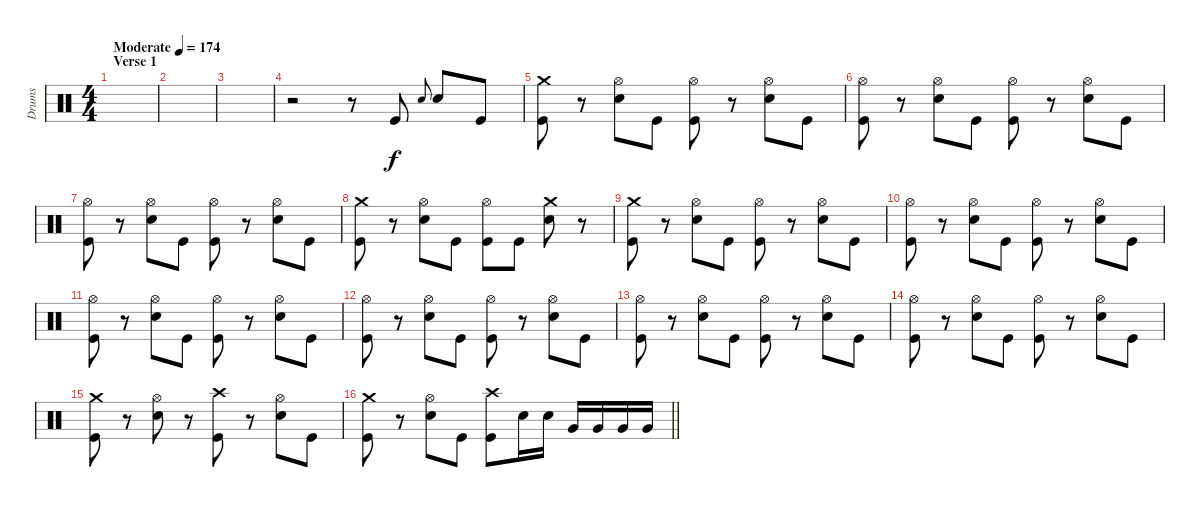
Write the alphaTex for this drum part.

\track ("Drums" "Drums") {instrument percussion}
\staff {score}
\articulation defaults
\ts (4 4)
\section ("" "Verse 1")
\tempo (174 "Moderate")
\clef neutral
\ks c
|
|
|
r.2 r.8 "Kick (hit)".8 "Snare (hit) 2".8{gr onbeat} "Snare (hit) 2".8 "Kick (hit)".8 |
("Crash medium (hit)" "Kick (hit)").8 r.8 ("Hi-Hat (open)" "Snare (hit) 2").8 "Kick (hit)".8 ("Hi-Hat (open)" "Kick (hit)").8 r.8 ("Hi-Hat (open)" "Snare (hit) 2").8 "Kick (hit)".8 |
("Hi-Hat (open)" "Kick (hit)").8 r.8 ("Hi-Hat (open)" "Snare (hit) 2").8 "Kick (hit)".8 ("Hi-Hat (open)" "Kick (hit)").8 r.8 ("Hi-Hat (open)" "Snare (hit) 2").8 "Kick (hit)".8 |
("Hi-Hat (open)" "Kick (hit)").8 r.8 ("Hi-Hat (open)" "Snare (hit) 2").8 "Kick (hit)".8 ("Hi-Hat (open)" "Kick (hit)").8 r.8 ("Hi-Hat (open)" "Snare (hit) 2").8 "Kick (hit)".8 |
("Crash medium (hit)" "Kick (hit)").8 r.8 ("Hi-Hat (open)" "Snare (hit) 2").8 "Kick (hit)".8 ("Hi-Hat (open)" "Kick (hit)").8 "Kick (hit)".8 ("Crash medium (hit)" "Snare (hit) 2").8 r.8 |
("Crash medium (hit)" "Kick (hit)").8 r.8 ("Hi-Hat (open)" "Snare (hit) 2").8 "Kick (hit)".8 ("Hi-Hat (open)" "Kick (hit)").8 r.8 ("Hi-Hat (open)" "Snare (hit) 2").8 "Kick (hit)".8 |
("Hi-Hat (open)" "Kick (hit)").8 r.8 ("Hi-Hat (open)" "Snare (hit) 2").8 "Kick (hit)".8 ("Hi-Hat (open)" "Kick (hit)").8 r.8 ("Hi-Hat (open)" "Snare (hit) 2").8 "Kick (hit)".8 |
("Hi-Hat (open)" "Kick (hit)").8 r.8 ("Hi-Hat (open)" "Snare (hit) 2").8 "Kick (hit)".8 ("Hi-Hat (open)" "Kick (hit)").8 r.8 ("Hi-Hat (open)" "Snare (hit) 2").8 "Kick (hit)".8 |
("Hi-Hat (open)" "Kick (hit)").8 r.8 ("Hi-Hat (open)" "Snare (hit) 2").8 "Kick (hit)".8 ("Hi-Hat (open)" "Kick (hit)").8 r.8 ("Hi-Hat (open)" "Snare (hit) 2").8 "Kick (hit)".8 |
("Hi-Hat (open)" "Kick (hit)").8 r.8 ("Hi-Hat (open)" "Snare (hit) 2").8 "Kick (hit)".8 ("Hi-Hat (open)" "Kick (hit)").8 r.8 ("Hi-Hat (open)" "Snare (hit) 2").8 "Kick (hit)".8 |
("Hi-Hat (open)" "Kick (hit)").8 r.8 ("Hi-Hat (open)" "Snare (hit) 2").8 "Kick (hit)".8 ("Hi-Hat (open)" "Kick (hit)").8 r.8 ("Hi-Hat (open)" "Snare (hit) 2").8 "Kick (hit)".8 |
("Crash medium (hit)" "Kick (hit)").8 r.8 ("Hi-Hat (open)" "Snare (hit) 2").8 r.8 ("Crash high (hit)" "Kick (hit)").8 r.8 ("Hi-Hat (open)" "Snare (hit) 2").8 "Kick (hit)".8 |
\barLineRight lightlight
("Crash medium (hit)" "Kick (hit)").8 r.8 ("Hi-Hat (open)" "Snare (hit) 2").8 "Kick (hit)".8 ("Crash high (hit)" "Kick (hit)").8 "Snare (hit) 2".16 "Snare (hit) 2".16 "Very Low Tom (hit)".16 "Very Low Tom (hit)".16 "Very Low Tom (hit)".16 "Very Low Tom (hit)".16
